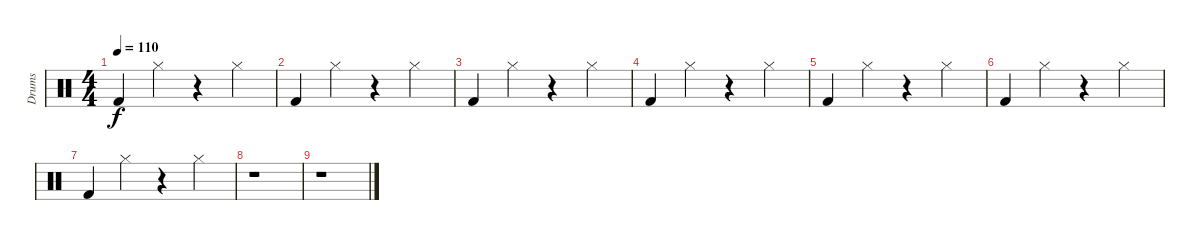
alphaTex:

\track ("Drums" "Drums") {instrument percussion}
\staff {score}
\articulation defaults
\ts (4 4)
\tempo 110
\clef neutral
\ks c "Kick (hit) 2".4{dy f} "Hi-Hat (closed)".4
r.4 "Hi-Hat (closed)".4 |
"Kick (hit) 2".4 "Hi-Hat (closed)".4 r.4 "Hi-Hat (closed)".4 |
"Kick (hit) 2".4 "Hi-Hat (closed)".4 r.4 "Hi-Hat (closed)".4 |
"Kick (hit) 2".4 "Hi-Hat (closed)".4 r.4 "Hi-Hat (closed)".4 |
"Kick (hit) 2".4 "Hi-Hat (closed)".4 r.4 "Hi-Hat (closed)".4 |
"Kick (hit) 2".4 "Hi-Hat (closed)".4 r.4 "Hi-Hat (closed)".4 |
"Kick (hit) 2".4 "Hi-Hat (closed)".4 r.4 "Hi-Hat (closed)".4 |
r.1 |
r.1
